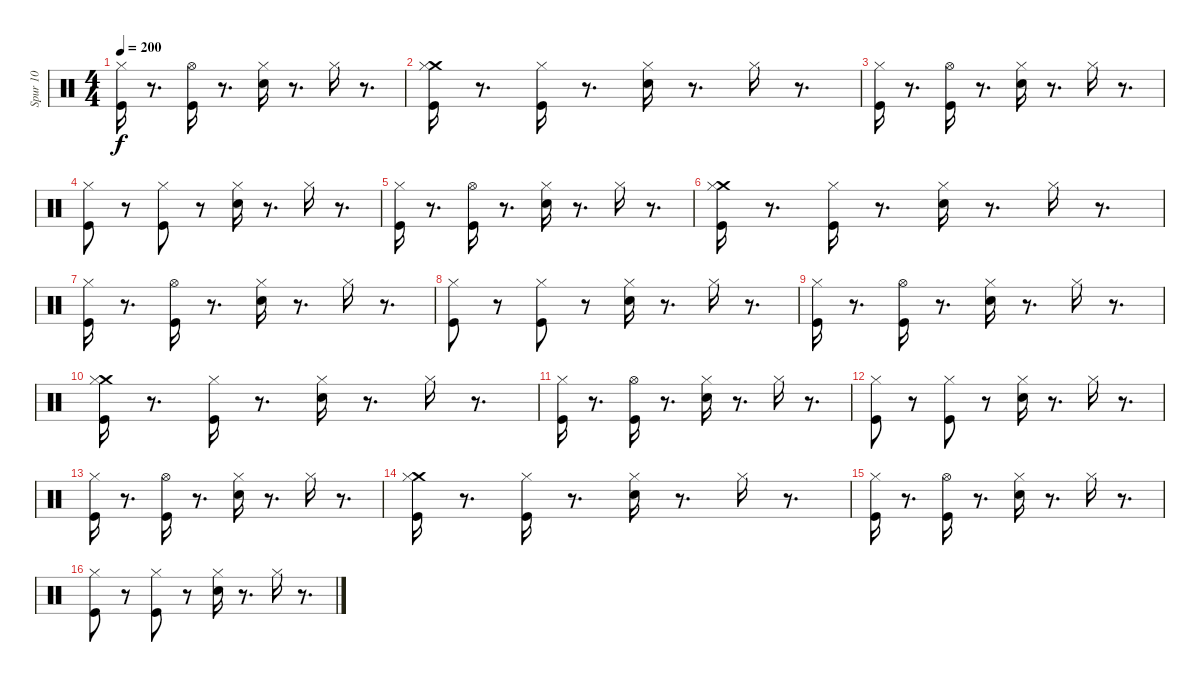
\track ("Spur 10" "Spur 10") {instrument percussion}
\staff {score}
\articulation defaults
\ts (4 4)
\tempo 200
\clef neutral
\ks c
("Kick (hit)" "Hi-Hat (closed)").16{dy f} r.8{d} ("Kick (hit)" "Hi-Hat (open)").16 r.8{d} ("Snare (hit) 2" "Hi-Hat (closed)").16 r.8{d} "Hi-Hat (closed)".16 r.8{d} |
("Kick (hit)" "Crash medium (hit)" "Hi-Hat (closed)").16 r.8{d} ("Kick (hit)" "Hi-Hat (closed)").16 r.8{d} ("Snare (hit) 2" "Hi-Hat (closed)").16 r.8{d} "Hi-Hat (closed)".16 r.8{d} |
("Kick (hit)" "Hi-Hat (closed)").16 r.8{d} ("Kick (hit)" "Hi-Hat (open)").16 r.8{d} ("Snare (hit) 2" "Hi-Hat (closed)").16 r.8{d} "Hi-Hat (closed)".16 r.8{d} |
("Hi-Hat (closed)" "Kick (hit)").8 r.8 ("Kick (hit)" "Hi-Hat (closed)").8 r.8 ("Snare (hit) 2" "Hi-Hat (closed)").16 r.8{d} "Hi-Hat (closed)".16 r.8{d} |
("Kick (hit)" "Hi-Hat (closed)").16 r.8{d} ("Kick (hit)" "Hi-Hat (open)").16 r.8{d} ("Snare (hit) 2" "Hi-Hat (closed)").16 r.8{d} "Hi-Hat (closed)".16 r.8{d} |
("Kick (hit)" "Crash medium (hit)" "Hi-Hat (closed)").16 r.8{d} ("Kick (hit)" "Hi-Hat (closed)").16 r.8{d} ("Snare (hit) 2" "Hi-Hat (closed)").16 r.8{d} "Hi-Hat (closed)".16 r.8{d} |
("Kick (hit)" "Hi-Hat (closed)").16 r.8{d} ("Kick (hit)" "Hi-Hat (open)").16 r.8{d} ("Snare (hit) 2" "Hi-Hat (closed)").16 r.8{d} "Hi-Hat (closed)".16 r.8{d} |
("Hi-Hat (closed)" "Kick (hit)").8 r.8 ("Kick (hit)" "Hi-Hat (closed)").8 r.8 ("Snare (hit) 2" "Hi-Hat (closed)").16 r.8{d} "Hi-Hat (closed)".16 r.8{d} |
("Kick (hit)" "Hi-Hat (closed)").16 r.8{d} ("Kick (hit)" "Hi-Hat (open)").16 r.8{d} ("Snare (hit) 2" "Hi-Hat (closed)").16 r.8{d} "Hi-Hat (closed)".16 r.8{d} |
("Kick (hit)" "Crash medium (hit)" "Hi-Hat (closed)").16 r.8{d} ("Kick (hit)" "Hi-Hat (closed)").16 r.8{d} ("Snare (hit) 2" "Hi-Hat (closed)").16 r.8{d} "Hi-Hat (closed)".16 r.8{d} |
("Kick (hit)" "Hi-Hat (closed)").16 r.8{d} ("Kick (hit)" "Hi-Hat (open)").16 r.8{d} ("Snare (hit) 2" "Hi-Hat (closed)").16 r.8{d} "Hi-Hat (closed)".16 r.8{d} |
("Hi-Hat (closed)" "Kick (hit)").8 r.8 ("Kick (hit)" "Hi-Hat (closed)").8 r.8 ("Snare (hit) 2" "Hi-Hat (closed)").16 r.8{d} "Hi-Hat (closed)".16 r.8{d} |
("Kick (hit)" "Hi-Hat (closed)").16 r.8{d} ("Kick (hit)" "Hi-Hat (open)").16 r.8{d} ("Snare (hit) 2" "Hi-Hat (closed)").16 r.8{d} "Hi-Hat (closed)".16 r.8{d} |
("Kick (hit)" "Crash medium (hit)" "Hi-Hat (closed)").16 r.8{d} ("Kick (hit)" "Hi-Hat (closed)").16 r.8{d} ("Snare (hit) 2" "Hi-Hat (closed)").16 r.8{d} "Hi-Hat (closed)".16 r.8{d} |
("Kick (hit)" "Hi-Hat (closed)").16 r.8{d} ("Kick (hit)" "Hi-Hat (open)").16 r.8{d} ("Snare (hit) 2" "Hi-Hat (closed)").16 r.8{d} "Hi-Hat (closed)".16 r.8{d} |
("Hi-Hat (closed)" "Kick (hit)").8 r.8 ("Kick (hit)" "Hi-Hat (closed)").8 r.8 ("Snare (hit) 2" "Hi-Hat (closed)").16 r.8{d} "Hi-Hat (closed)".16 r.8{d}
